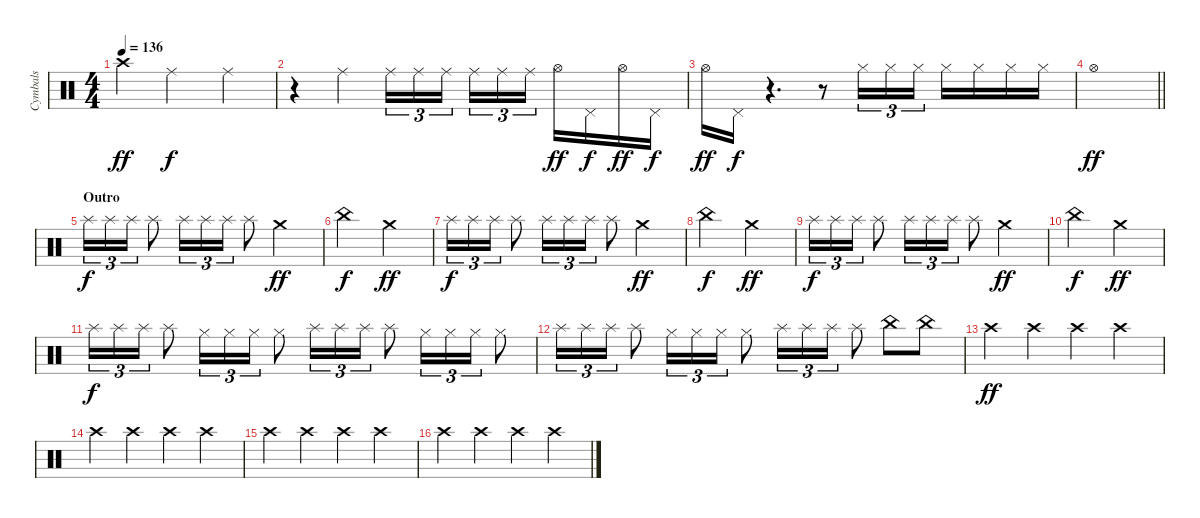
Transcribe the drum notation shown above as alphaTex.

\track ("Cymbals" "Cymbals") {instrument percussion}
\staff {score}
\articulation defaults
\ts (4 4)
\tempo 136
\clef neutral
\ks c "Crash high (hit)".4{dy ff} "Ride (middle)".2{dy f} "Ride (middle)".4
|
r.4 "Ride (middle)".4 "Ride (middle)".16{tu (3 2)} "Ride (middle)".16{tu (3 2)} "Ride (middle)".16{tu (3 2) beam splitsecondary} "Ride (middle)".16{tu (3 2)} "Ride (middle)".16{tu (3 2)} "Ride (middle)".16{tu (3 2)} "Hi-Hat (open)".16{dy ff} "Pedal Hi-Hat (hit)".16{dy f} "Hi-Hat (open)".16{dy ff} "Pedal Hi-Hat (hit)".16{dy f} |
"Hi-Hat (open)".16{dy ff} "Pedal Hi-Hat (hit)".16{dy f} r.4{d} r.8 "Hi-Hat (closed)".16{tu (3 2)} "Hi-Hat (closed)".16{tu (3 2)} "Hi-Hat (closed)".16{tu (3 2)} "Hi-Hat (closed)".16 "Hi-Hat (closed)".16 "Hi-Hat (closed)".16 "Hi-Hat (closed)".16 |
\barLineRight lightlight "Hi-Hat (open)".1{dy ff}
|
\section ("" "Outro")
"Splash (hit)".16{tu (3 2) dy f} "Splash (hit)".16{tu (3 2)} "Splash (hit)".16{tu (3 2)} "Splash (hit)".8 "Splash (hit)".16{tu (3 2)} "Splash (hit)".16{tu (3 2)} "Splash (hit)".16{tu (3 2)} "Splash (hit)".8 "Crash medium (hit)".2{dy ff} |
"China (hit)".2{dy f} "Crash medium (hit)".2{dy ff} |
"Splash (hit)".16{tu (3 2) dy f} "Splash (hit)".16{tu (3 2)} "Splash (hit)".16{tu (3 2)} "Splash (hit)".8 "Splash (hit)".16{tu (3 2)} "Splash (hit)".16{tu (3 2)} "Splash (hit)".16{tu (3 2)} "Splash (hit)".8 "Crash medium (hit)".2{dy ff} |
"China (hit)".2{dy f} "Crash medium (hit)".2{dy ff} |
"Splash (hit)".16{tu (3 2) dy f} "Splash (hit)".16{tu (3 2)} "Splash (hit)".16{tu (3 2)} "Splash (hit)".8 "Splash (hit)".16{tu (3 2)} "Splash (hit)".16{tu (3 2)} "Splash (hit)".16{tu (3 2)} "Splash (hit)".8 "Crash medium (hit)".2{dy ff} |
"China (hit)".2{dy f} "Crash medium (hit)".2{dy ff} |
"Splash (hit)".16{tu (3 2) dy f volume 10} "Splash (hit)".16{tu (3 2)} "Splash (hit)".16{tu (3 2)} "Splash (hit)".8 "Hi-Hat (closed)".16{tu (3 2)} "Hi-Hat (closed)".16{tu (3 2)} "Hi-Hat (closed)".16{tu (3 2)} "Hi-Hat (closed)".8 "Splash (hit)".16{tu (3 2)} "Splash (hit)".16{tu (3 2)} "Splash (hit)".16{tu (3 2)} "Splash (hit)".8 "Hi-Hat (closed)".16{tu (3 2)} "Hi-Hat (closed)".16{tu (3 2)} "Hi-Hat (closed)".16{tu (3 2)} "Hi-Hat (closed)".8 |
"Splash (hit)".16{tu (3 2)} "Splash (hit)".16{tu (3 2)} "Splash (hit)".16{tu (3 2)} "Splash (hit)".8 "Hi-Hat (closed)".16{tu (3 2)} "Hi-Hat (closed)".16{tu (3 2)} "Hi-Hat (closed)".16{tu (3 2)} "Hi-Hat (closed)".8 "Splash (hit)".16{tu (3 2)} "Splash (hit)".16{tu (3 2)} "Splash (hit)".16{tu (3 2)} "Splash (hit)".8 "China (hit)".8 "China (hit)".8 |
"Crash high (hit)".4{dy ff} "Crash high (hit)".4 "Crash high (hit)".4 "Crash high (hit)".4 |
"Crash high (hit)".4 "Crash high (hit)".4 "Crash high (hit)".4 "Crash high (hit)".4 |
"Crash high (hit)".4{volume 8} "Crash high (hit)".4 "Crash high (hit)".4 "Crash high (hit)".4 |
"Crash high (hit)".4 "Crash high (hit)".4 "Crash high (hit)".4 "Crash high (hit)".4
